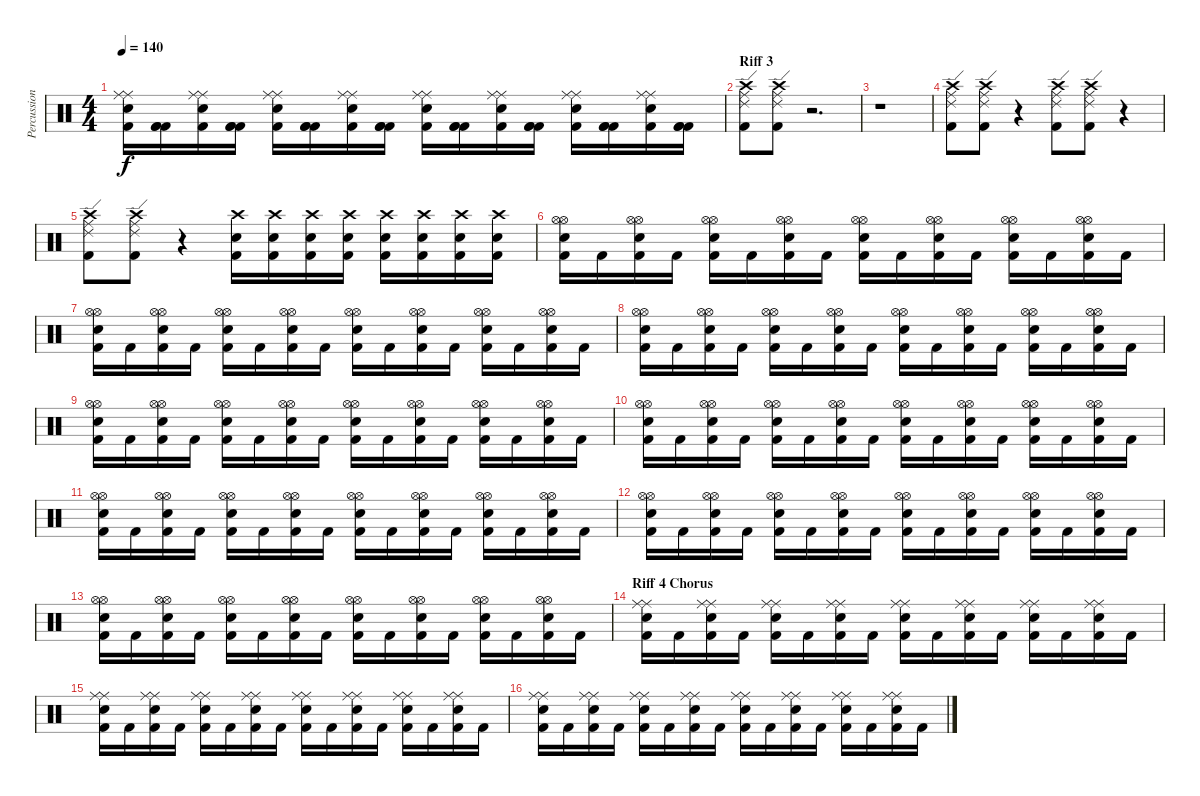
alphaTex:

\track ("Percussion" "Percussion") {instrument percussion}
\staff {score}
\articulation defaults
\ts (4 4)
\tempo 140
\clef neutral
\ks c
("Ride (middle)" "Ride (middle)" "Electric Snare (hit)" "Kick (hit) 2").16{dy f} ("Kick (hit) 2" "Kick (hit) 2" "Kick (hit) 2").16 ("Ride (middle)" "Ride (middle)" "Electric Snare (hit)" "Kick (hit) 2").16 ("Kick (hit) 2" "Kick (hit) 2" "Kick (hit) 2").16 ("Ride (middle)" "Ride (middle)" "Electric Snare (hit)" "Kick (hit) 2").16 ("Kick (hit) 2" "Kick (hit) 2" "Kick (hit) 2").16 ("Ride (middle)" "Ride (middle)" "Electric Snare (hit)" "Kick (hit) 2").16 ("Kick (hit) 2" "Kick (hit) 2" "Kick (hit) 2").16 ("Ride (middle)" "Ride (middle)" "Electric Snare (hit)" "Kick (hit) 2").16 ("Kick (hit) 2" "Kick (hit) 2" "Kick (hit) 2").16 ("Ride (middle)" "Ride (middle)" "Electric Snare (hit)" "Kick (hit) 2").16 ("Kick (hit) 2" "Kick (hit) 2" "Kick (hit) 2").16 ("Ride (middle)" "Ride (middle)" "Electric Snare (hit)" "Kick (hit) 2").16 ("Kick (hit) 2" "Kick (hit) 2" "Kick (hit) 2").16 ("Ride (middle)" "Ride (middle)" "Electric Snare (hit)" "Kick (hit) 2").16 ("Kick (hit) 2" "Kick (hit) 2" "Kick (hit) 2").16 |
\section ("" "Riff 3")
("Ride (edge) 2" "Crash high (hit)" "Ride (middle)" "Kick (hit) 2").8 ("Ride (edge) 2" "Crash high (hit)" "Ride (middle)" "Kick (hit) 2").8 r.2{d} |
r.1 |
("Ride (edge) 2" "Crash high (hit)" "Ride (middle)" "Kick (hit) 2").8 ("Ride (edge) 2" "Crash high (hit)" "Ride (middle)" "Kick (hit) 2").8 r.4 ("Ride (edge) 2" "Crash high (hit)" "Ride (middle)" "Kick (hit) 2").8 ("Ride (edge) 2" "Crash high (hit)" "Ride (middle)" "Kick (hit) 2").8 r.4 |
("Ride (edge) 2" "Crash high (hit)" "Ride (middle)" "Kick (hit) 2").8 ("Ride (edge) 2" "Crash high (hit)" "Ride (middle)" "Kick (hit) 2").8 r.4 ("Crash high (hit)" "Electric Snare (hit)" "Kick (hit) 2").16 ("Crash high (hit)" "Electric Snare (hit)" "Kick (hit) 2").16 ("Crash high (hit)" "Electric Snare (hit)" "Kick (hit) 2").16 ("Crash high (hit)" "Electric Snare (hit)" "Kick (hit) 2").16 ("Crash high (hit)" "Electric Snare (hit)" "Kick (hit) 2").16 ("Crash high (hit)" "Electric Snare (hit)" "Kick (hit) 2").16 ("Crash high (hit)" "Electric Snare (hit)" "Kick (hit) 2").16 ("Crash high (hit)" "Electric Snare (hit)" "Kick (hit) 2").16 |
("Hi-Hat (open)" "Hi-Hat (open)" "Electric Snare (hit)" "Kick (hit) 2").16 "Kick (hit) 2".16 ("Hi-Hat (open)" "Hi-Hat (open)" "Electric Snare (hit)" "Kick (hit) 2").16 "Kick (hit) 2".16 ("Hi-Hat (open)" "Hi-Hat (open)" "Electric Snare (hit)" "Kick (hit) 2").16 "Kick (hit) 2".16 ("Hi-Hat (open)" "Hi-Hat (open)" "Electric Snare (hit)" "Kick (hit) 2").16 "Kick (hit) 2".16 ("Hi-Hat (open)" "Hi-Hat (open)" "Electric Snare (hit)" "Kick (hit) 2").16 "Kick (hit) 2".16 ("Hi-Hat (open)" "Hi-Hat (open)" "Electric Snare (hit)" "Kick (hit) 2").16 "Kick (hit) 2".16 ("Hi-Hat (open)" "Hi-Hat (open)" "Electric Snare (hit)" "Kick (hit) 2").16 "Kick (hit) 2".16 ("Hi-Hat (open)" "Hi-Hat (open)" "Electric Snare (hit)" "Kick (hit) 2").16 "Kick (hit) 2".16 |
("Hi-Hat (open)" "Hi-Hat (open)" "Electric Snare (hit)" "Kick (hit) 2").16 "Kick (hit) 2".16 ("Hi-Hat (open)" "Hi-Hat (open)" "Electric Snare (hit)" "Kick (hit) 2").16 "Kick (hit) 2".16 ("Hi-Hat (open)" "Hi-Hat (open)" "Electric Snare (hit)" "Kick (hit) 2").16 "Kick (hit) 2".16 ("Hi-Hat (open)" "Hi-Hat (open)" "Electric Snare (hit)" "Kick (hit) 2").16 "Kick (hit) 2".16 ("Hi-Hat (open)" "Hi-Hat (open)" "Electric Snare (hit)" "Kick (hit) 2").16 "Kick (hit) 2".16 ("Hi-Hat (open)" "Hi-Hat (open)" "Electric Snare (hit)" "Kick (hit) 2").16 "Kick (hit) 2".16 ("Hi-Hat (open)" "Hi-Hat (open)" "Electric Snare (hit)" "Kick (hit) 2").16 "Kick (hit) 2".16 ("Hi-Hat (open)" "Hi-Hat (open)" "Electric Snare (hit)" "Kick (hit) 2").16 "Kick (hit) 2".16 |
("Hi-Hat (open)" "Hi-Hat (open)" "Electric Snare (hit)" "Kick (hit) 2").16 "Kick (hit) 2".16 ("Hi-Hat (open)" "Hi-Hat (open)" "Electric Snare (hit)" "Kick (hit) 2").16 "Kick (hit) 2".16 ("Hi-Hat (open)" "Hi-Hat (open)" "Electric Snare (hit)" "Kick (hit) 2").16 "Kick (hit) 2".16 ("Hi-Hat (open)" "Hi-Hat (open)" "Electric Snare (hit)" "Kick (hit) 2").16 "Kick (hit) 2".16 ("Hi-Hat (open)" "Hi-Hat (open)" "Electric Snare (hit)" "Kick (hit) 2").16 "Kick (hit) 2".16 ("Hi-Hat (open)" "Hi-Hat (open)" "Electric Snare (hit)" "Kick (hit) 2").16 "Kick (hit) 2".16 ("Hi-Hat (open)" "Hi-Hat (open)" "Electric Snare (hit)" "Kick (hit) 2").16 "Kick (hit) 2".16 ("Hi-Hat (open)" "Hi-Hat (open)" "Electric Snare (hit)" "Kick (hit) 2").16 "Kick (hit) 2".16 |
("Hi-Hat (open)" "Hi-Hat (open)" "Electric Snare (hit)" "Kick (hit) 2").16 "Kick (hit) 2".16 ("Hi-Hat (open)" "Hi-Hat (open)" "Electric Snare (hit)" "Kick (hit) 2").16 "Kick (hit) 2".16 ("Hi-Hat (open)" "Hi-Hat (open)" "Electric Snare (hit)" "Kick (hit) 2").16 "Kick (hit) 2".16 ("Hi-Hat (open)" "Hi-Hat (open)" "Electric Snare (hit)" "Kick (hit) 2").16 "Kick (hit) 2".16 ("Hi-Hat (open)" "Hi-Hat (open)" "Electric Snare (hit)" "Kick (hit) 2").16 "Kick (hit) 2".16 ("Hi-Hat (open)" "Hi-Hat (open)" "Electric Snare (hit)" "Kick (hit) 2").16 "Kick (hit) 2".16 ("Hi-Hat (open)" "Hi-Hat (open)" "Electric Snare (hit)" "Kick (hit) 2").16 "Kick (hit) 2".16 ("Hi-Hat (open)" "Hi-Hat (open)" "Electric Snare (hit)" "Kick (hit) 2").16 "Kick (hit) 2".16 |
("Hi-Hat (open)" "Hi-Hat (open)" "Electric Snare (hit)" "Kick (hit) 2").16 "Kick (hit) 2".16 ("Hi-Hat (open)" "Hi-Hat (open)" "Electric Snare (hit)" "Kick (hit) 2").16 "Kick (hit) 2".16 ("Hi-Hat (open)" "Hi-Hat (open)" "Electric Snare (hit)" "Kick (hit) 2").16 "Kick (hit) 2".16 ("Hi-Hat (open)" "Hi-Hat (open)" "Electric Snare (hit)" "Kick (hit) 2").16 "Kick (hit) 2".16 ("Hi-Hat (open)" "Hi-Hat (open)" "Electric Snare (hit)" "Kick (hit) 2").16 "Kick (hit) 2".16 ("Hi-Hat (open)" "Hi-Hat (open)" "Electric Snare (hit)" "Kick (hit) 2").16 "Kick (hit) 2".16 ("Hi-Hat (open)" "Hi-Hat (open)" "Electric Snare (hit)" "Kick (hit) 2").16 "Kick (hit) 2".16 ("Hi-Hat (open)" "Hi-Hat (open)" "Electric Snare (hit)" "Kick (hit) 2").16 "Kick (hit) 2".16 |
("Hi-Hat (open)" "Hi-Hat (open)" "Electric Snare (hit)" "Kick (hit) 2").16 "Kick (hit) 2".16 ("Hi-Hat (open)" "Hi-Hat (open)" "Electric Snare (hit)" "Kick (hit) 2").16 "Kick (hit) 2".16 ("Hi-Hat (open)" "Hi-Hat (open)" "Electric Snare (hit)" "Kick (hit) 2").16 "Kick (hit) 2".16 ("Hi-Hat (open)" "Hi-Hat (open)" "Electric Snare (hit)" "Kick (hit) 2").16 "Kick (hit) 2".16 ("Hi-Hat (open)" "Hi-Hat (open)" "Electric Snare (hit)" "Kick (hit) 2").16 "Kick (hit) 2".16 ("Hi-Hat (open)" "Hi-Hat (open)" "Electric Snare (hit)" "Kick (hit) 2").16 "Kick (hit) 2".16 ("Hi-Hat (open)" "Hi-Hat (open)" "Electric Snare (hit)" "Kick (hit) 2").16 "Kick (hit) 2".16 ("Hi-Hat (open)" "Hi-Hat (open)" "Electric Snare (hit)" "Kick (hit) 2").16 "Kick (hit) 2".16 |
("Hi-Hat (open)" "Hi-Hat (open)" "Electric Snare (hit)" "Kick (hit) 2").16 "Kick (hit) 2".16 ("Hi-Hat (open)" "Hi-Hat (open)" "Electric Snare (hit)" "Kick (hit) 2").16 "Kick (hit) 2".16 ("Hi-Hat (open)" "Hi-Hat (open)" "Electric Snare (hit)" "Kick (hit) 2").16 "Kick (hit) 2".16 ("Hi-Hat (open)" "Hi-Hat (open)" "Electric Snare (hit)" "Kick (hit) 2").16 "Kick (hit) 2".16 ("Hi-Hat (open)" "Hi-Hat (open)" "Electric Snare (hit)" "Kick (hit) 2").16 "Kick (hit) 2".16 ("Hi-Hat (open)" "Hi-Hat (open)" "Electric Snare (hit)" "Kick (hit) 2").16 "Kick (hit) 2".16 ("Hi-Hat (open)" "Hi-Hat (open)" "Electric Snare (hit)" "Kick (hit) 2").16 "Kick (hit) 2".16 ("Hi-Hat (open)" "Hi-Hat (open)" "Electric Snare (hit)" "Kick (hit) 2").16 "Kick (hit) 2".16 |
("Hi-Hat (open)" "Hi-Hat (open)" "Electric Snare (hit)" "Kick (hit) 2").16 "Kick (hit) 2".16 ("Hi-Hat (open)" "Hi-Hat (open)" "Electric Snare (hit)" "Kick (hit) 2").16 "Kick (hit) 2".16 ("Hi-Hat (open)" "Hi-Hat (open)" "Electric Snare (hit)" "Kick (hit) 2").16 "Kick (hit) 2".16 ("Hi-Hat (open)" "Hi-Hat (open)" "Electric Snare (hit)" "Kick (hit) 2").16 "Kick (hit) 2".16 ("Hi-Hat (open)" "Hi-Hat (open)" "Electric Snare (hit)" "Kick (hit) 2").16 "Kick (hit) 2".16 ("Hi-Hat (open)" "Hi-Hat (open)" "Electric Snare (hit)" "Kick (hit) 2").16 "Kick (hit) 2".16 ("Hi-Hat (open)" "Hi-Hat (open)" "Electric Snare (hit)" "Kick (hit) 2").16 "Kick (hit) 2".16 ("Hi-Hat (open)" "Hi-Hat (open)" "Electric Snare (hit)" "Kick (hit) 2").16 "Kick (hit) 2".16 |
\section ("" "Riff 4 Chorus")
("Ride (middle)" "Ride (middle)" "Electric Snare (hit)" "Kick (hit) 2").16 "Kick (hit) 2".16 ("Ride (middle)" "Ride (middle)" "Electric Snare (hit)" "Kick (hit) 2").16 "Kick (hit) 2".16 ("Ride (middle)" "Ride (middle)" "Electric Snare (hit)" "Kick (hit) 2").16 "Kick (hit) 2".16 ("Ride (middle)" "Ride (middle)" "Electric Snare (hit)" "Kick (hit) 2").16 "Kick (hit) 2".16 ("Ride (middle)" "Ride (middle)" "Electric Snare (hit)" "Kick (hit) 2").16 "Kick (hit) 2".16 ("Ride (middle)" "Ride (middle)" "Electric Snare (hit)" "Kick (hit) 2").16 "Kick (hit) 2".16 ("Ride (middle)" "Ride (middle)" "Electric Snare (hit)" "Kick (hit) 2").16 "Kick (hit) 2".16 ("Ride (middle)" "Ride (middle)" "Electric Snare (hit)" "Kick (hit) 2").16 "Kick (hit) 2".16 |
("Ride (middle)" "Ride (middle)" "Electric Snare (hit)" "Kick (hit) 2").16 "Kick (hit) 2".16 ("Ride (middle)" "Ride (middle)" "Electric Snare (hit)" "Kick (hit) 2").16 "Kick (hit) 2".16 ("Ride (middle)" "Ride (middle)" "Electric Snare (hit)" "Kick (hit) 2").16 "Kick (hit) 2".16 ("Ride (middle)" "Ride (middle)" "Electric Snare (hit)" "Kick (hit) 2").16 "Kick (hit) 2".16 ("Ride (middle)" "Ride (middle)" "Electric Snare (hit)" "Kick (hit) 2").16 "Kick (hit) 2".16 ("Ride (middle)" "Ride (middle)" "Electric Snare (hit)" "Kick (hit) 2").16 "Kick (hit) 2".16 ("Ride (middle)" "Ride (middle)" "Electric Snare (hit)" "Kick (hit) 2").16 "Kick (hit) 2".16 ("Ride (middle)" "Ride (middle)" "Electric Snare (hit)" "Kick (hit) 2").16 "Kick (hit) 2".16 |
("Ride (middle)" "Ride (middle)" "Electric Snare (hit)" "Kick (hit) 2").16 "Kick (hit) 2".16 ("Ride (middle)" "Ride (middle)" "Electric Snare (hit)" "Kick (hit) 2").16 "Kick (hit) 2".16 ("Ride (middle)" "Ride (middle)" "Electric Snare (hit)" "Kick (hit) 2").16 "Kick (hit) 2".16 ("Ride (middle)" "Ride (middle)" "Electric Snare (hit)" "Kick (hit) 2").16 "Kick (hit) 2".16 ("Ride (middle)" "Ride (middle)" "Electric Snare (hit)" "Kick (hit) 2").16 "Kick (hit) 2".16 ("Ride (middle)" "Ride (middle)" "Electric Snare (hit)" "Kick (hit) 2").16 "Kick (hit) 2".16 ("Ride (middle)" "Ride (middle)" "Electric Snare (hit)" "Kick (hit) 2").16 "Kick (hit) 2".16 ("Ride (middle)" "Ride (middle)" "Electric Snare (hit)" "Kick (hit) 2").16 "Kick (hit) 2".16
